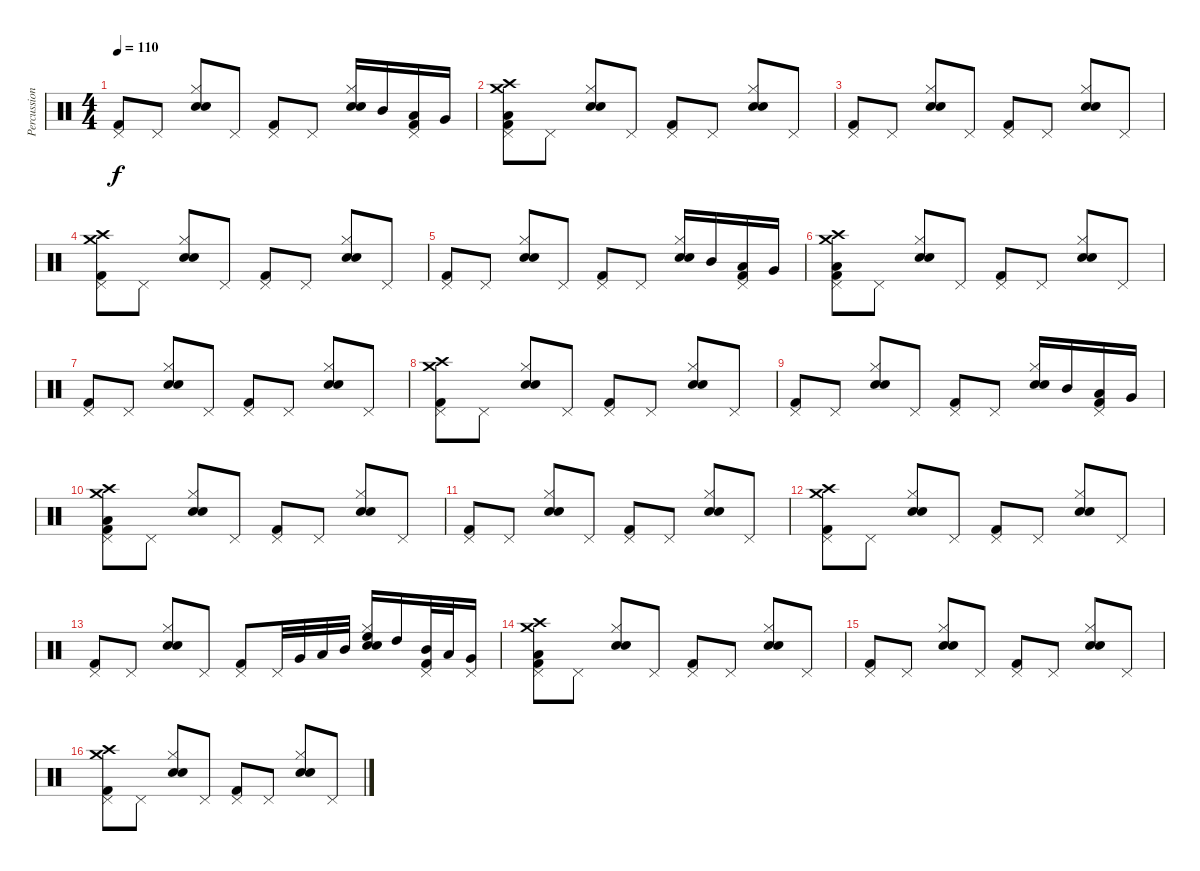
\track ("Percussion" "Percussion") {instrument percussion}
\staff {score}
\articulation defaults
\ts (4 4)
\tempo 110
\clef neutral
\ks c
("Pedal Hi-Hat (hit)" "Kick (hit) 2").8{dy f} "Pedal Hi-Hat (hit)".8 ("Electric Snare (hit)" "Hi-Hat (closed)" "Snare (hit) 2").8 "Pedal Hi-Hat (hit)".8 ("Pedal Hi-Hat (hit)" "Kick (hit) 2").8 "Pedal Hi-Hat (hit)".8 ("Electric Snare (hit)" "Hi-Hat (closed)" "Snare (hit) 2").16 "Mid Tom (hit)".16 ("Low Tom (hit)" "Pedal Hi-Hat (hit)" "Kick (hit) 2").16 "Very Low Tom (hit)".16 |
("Low Floor Tom (hit)" "Crash medium (hit)" "Crash high (hit)" "Pedal Hi-Hat (hit)" "Kick (hit) 2").8 "Pedal Hi-Hat (hit)".8 ("Electric Snare (hit)" "Hi-Hat (closed)" "Snare (hit) 2").8 "Pedal Hi-Hat (hit)".8 ("Pedal Hi-Hat (hit)" "Kick (hit) 2").8 "Pedal Hi-Hat (hit)".8 ("Electric Snare (hit)" "Hi-Hat (closed)" "Snare (hit) 2").8 "Pedal Hi-Hat (hit)".8 |
("Pedal Hi-Hat (hit)" "Kick (hit) 2").8 "Pedal Hi-Hat (hit)".8 ("Electric Snare (hit)" "Hi-Hat (closed)" "Snare (hit) 2").8 "Pedal Hi-Hat (hit)".8 ("Pedal Hi-Hat (hit)" "Kick (hit) 2").8 "Pedal Hi-Hat (hit)".8 ("Electric Snare (hit)" "Hi-Hat (closed)" "Snare (hit) 2").8 "Pedal Hi-Hat (hit)".8 |
("Crash medium (hit)" "Crash high (hit)" "Pedal Hi-Hat (hit)" "Kick (hit) 2").8 "Pedal Hi-Hat (hit)".8 ("Electric Snare (hit)" "Hi-Hat (closed)" "Snare (hit) 2").8 "Pedal Hi-Hat (hit)".8 ("Pedal Hi-Hat (hit)" "Kick (hit) 2").8 "Pedal Hi-Hat (hit)".8 ("Electric Snare (hit)" "Hi-Hat (closed)" "Snare (hit) 2").8 "Pedal Hi-Hat (hit)".8 |
("Pedal Hi-Hat (hit)" "Kick (hit) 2").8 "Pedal Hi-Hat (hit)".8 ("Electric Snare (hit)" "Hi-Hat (closed)" "Snare (hit) 2").8 "Pedal Hi-Hat (hit)".8 ("Pedal Hi-Hat (hit)" "Kick (hit) 2").8 "Pedal Hi-Hat (hit)".8 ("Electric Snare (hit)" "Hi-Hat (closed)" "Snare (hit) 2").16 "Mid Tom (hit)".16 ("Low Tom (hit)" "Pedal Hi-Hat (hit)" "Kick (hit) 2").16 "Very Low Tom (hit)".16 |
("Low Floor Tom (hit)" "Crash medium (hit)" "Crash high (hit)" "Pedal Hi-Hat (hit)" "Kick (hit) 2").8 "Pedal Hi-Hat (hit)".8 ("Electric Snare (hit)" "Hi-Hat (closed)" "Snare (hit) 2").8 "Pedal Hi-Hat (hit)".8 ("Pedal Hi-Hat (hit)" "Kick (hit) 2").8 "Pedal Hi-Hat (hit)".8 ("Electric Snare (hit)" "Hi-Hat (closed)" "Snare (hit) 2").8 "Pedal Hi-Hat (hit)".8 |
("Pedal Hi-Hat (hit)" "Kick (hit) 2").8 "Pedal Hi-Hat (hit)".8 ("Electric Snare (hit)" "Hi-Hat (closed)" "Snare (hit) 2").8 "Pedal Hi-Hat (hit)".8 ("Pedal Hi-Hat (hit)" "Kick (hit) 2").8 "Pedal Hi-Hat (hit)".8 ("Electric Snare (hit)" "Hi-Hat (closed)" "Snare (hit) 2").8 "Pedal Hi-Hat (hit)".8 |
("Crash medium (hit)" "Crash high (hit)" "Pedal Hi-Hat (hit)" "Kick (hit) 2").8 "Pedal Hi-Hat (hit)".8 ("Electric Snare (hit)" "Hi-Hat (closed)" "Snare (hit) 2").8 "Pedal Hi-Hat (hit)".8 ("Pedal Hi-Hat (hit)" "Kick (hit) 2").8 "Pedal Hi-Hat (hit)".8 ("Electric Snare (hit)" "Hi-Hat (closed)" "Snare (hit) 2").8 "Pedal Hi-Hat (hit)".8 |
("Pedal Hi-Hat (hit)" "Kick (hit) 2").8 "Pedal Hi-Hat (hit)".8 ("Electric Snare (hit)" "Hi-Hat (closed)" "Snare (hit) 2").8 "Pedal Hi-Hat (hit)".8 ("Pedal Hi-Hat (hit)" "Kick (hit) 2").8 "Pedal Hi-Hat (hit)".8 ("Electric Snare (hit)" "Hi-Hat (closed)" "Snare (hit) 2").16 "Mid Tom (hit)".16 ("Low Tom (hit)" "Pedal Hi-Hat (hit)" "Kick (hit) 2").16 "Very Low Tom (hit)".16 |
("Low Floor Tom (hit)" "Crash medium (hit)" "Crash high (hit)" "Pedal Hi-Hat (hit)" "Kick (hit) 2").8 "Pedal Hi-Hat (hit)".8 ("Electric Snare (hit)" "Hi-Hat (closed)" "Snare (hit) 2").8 "Pedal Hi-Hat (hit)".8 ("Pedal Hi-Hat (hit)" "Kick (hit) 2").8 "Pedal Hi-Hat (hit)".8 ("Electric Snare (hit)" "Hi-Hat (closed)" "Snare (hit) 2").8 "Pedal Hi-Hat (hit)".8 |
("Pedal Hi-Hat (hit)" "Kick (hit) 2").8 "Pedal Hi-Hat (hit)".8 ("Electric Snare (hit)" "Hi-Hat (closed)" "Snare (hit) 2").8 "Pedal Hi-Hat (hit)".8 ("Pedal Hi-Hat (hit)" "Kick (hit) 2").8 "Pedal Hi-Hat (hit)".8 ("Electric Snare (hit)" "Hi-Hat (closed)" "Snare (hit) 2").8 "Pedal Hi-Hat (hit)".8 |
("Crash medium (hit)" "Crash high (hit)" "Pedal Hi-Hat (hit)" "Kick (hit) 2").8 "Pedal Hi-Hat (hit)".8 ("Electric Snare (hit)" "Hi-Hat (closed)" "Snare (hit) 2").8 "Pedal Hi-Hat (hit)".8 ("Pedal Hi-Hat (hit)" "Kick (hit) 2").8 "Pedal Hi-Hat (hit)".8 ("Electric Snare (hit)" "Hi-Hat (closed)" "Snare (hit) 2").8 "Pedal Hi-Hat (hit)".8 |
("Pedal Hi-Hat (hit)" "Kick (hit) 2").8 "Pedal Hi-Hat (hit)".8 ("Electric Snare (hit)" "Hi-Hat (closed)" "Snare (hit) 2").8 "Pedal Hi-Hat (hit)".8 ("Pedal Hi-Hat (hit)" "Kick (hit) 2").8 "Pedal Hi-Hat (hit)".32 "Very Low Tom (hit)".32 "Low Tom (hit)".32 "Mid Tom (hit)".32 ("High Floor Tom (hit)" "Electric Snare (hit)" "Hi-Hat (closed)" "Snare (hit) 2").16 "High Tom (hit)".16 ("Mid Tom (hit)" "Pedal Hi-Hat (hit)" "Kick (hit) 2").32 "Low Tom (hit)".32 ("Very Low Tom (hit)" "Pedal Hi-Hat (hit)").16 |
("Low Floor Tom (hit)" "Crash medium (hit)" "Crash high (hit)" "Pedal Hi-Hat (hit)" "Kick (hit) 2").8 "Pedal Hi-Hat (hit)".8 ("Electric Snare (hit)" "Hi-Hat (closed)" "Snare (hit) 2").8 "Pedal Hi-Hat (hit)".8 ("Pedal Hi-Hat (hit)" "Kick (hit) 2").8 "Pedal Hi-Hat (hit)".8 ("Electric Snare (hit)" "Hi-Hat (closed)" "Snare (hit) 2").8 "Pedal Hi-Hat (hit)".8 |
("Pedal Hi-Hat (hit)" "Kick (hit) 2").8 "Pedal Hi-Hat (hit)".8 ("Electric Snare (hit)" "Hi-Hat (closed)" "Snare (hit) 2").8 "Pedal Hi-Hat (hit)".8 ("Pedal Hi-Hat (hit)" "Kick (hit) 2").8 "Pedal Hi-Hat (hit)".8 ("Electric Snare (hit)" "Hi-Hat (closed)" "Snare (hit) 2").8 "Pedal Hi-Hat (hit)".8 |
("Crash medium (hit)" "Crash high (hit)" "Pedal Hi-Hat (hit)" "Kick (hit) 2").8 "Pedal Hi-Hat (hit)".8 ("Electric Snare (hit)" "Hi-Hat (closed)" "Snare (hit) 2").8 "Pedal Hi-Hat (hit)".8 ("Pedal Hi-Hat (hit)" "Kick (hit) 2").8 "Pedal Hi-Hat (hit)".8 ("Electric Snare (hit)" "Hi-Hat (closed)" "Snare (hit) 2").8 "Pedal Hi-Hat (hit)".8
